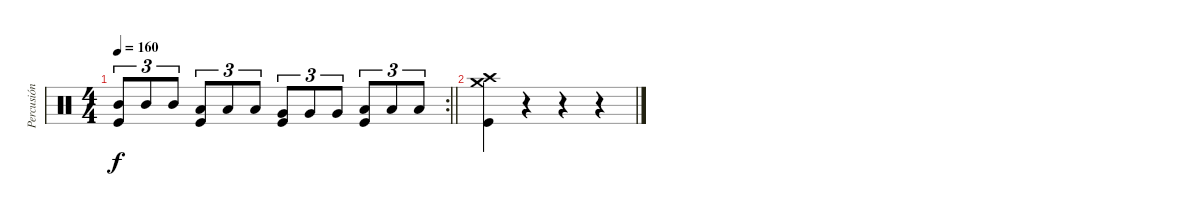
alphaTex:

\track ("Percusión" "Percusión") {instrument percussion}
\staff
\articulation defaults
\rc 2
\ts (4 4)
\tempo 160
\clef neutral
\barLineRight lightlight
\ks c
("Kick (hit)" "Mid Tom (hit)").8{tu (3 2) dy f} "Mid Tom (hit)".8{tu (3 2)} "Mid Tom (hit)".8{tu (3 2)} ("Kick (hit)" "Low Tom (hit)").8{tu (3 2)} "Low Tom (hit)".8{tu (3 2)} "Low Tom (hit)".8{tu (3 2)} ("Kick (hit)" "Very Low Tom (hit)").8{tu (3 2)} "Very Low Tom (hit)".8{tu (3 2)} "Very Low Tom (hit)".8{tu (3 2)} ("Kick (hit)" "Low Floor Tom (hit)").8{tu (3 2)} "Low Floor Tom (hit)".8{tu (3 2)} "Low Floor Tom (hit)".8{tu (3 2)} |
("Kick (hit)" "Crash medium (hit)" "Crash high (hit)").4 r.4 r.4 r.4
